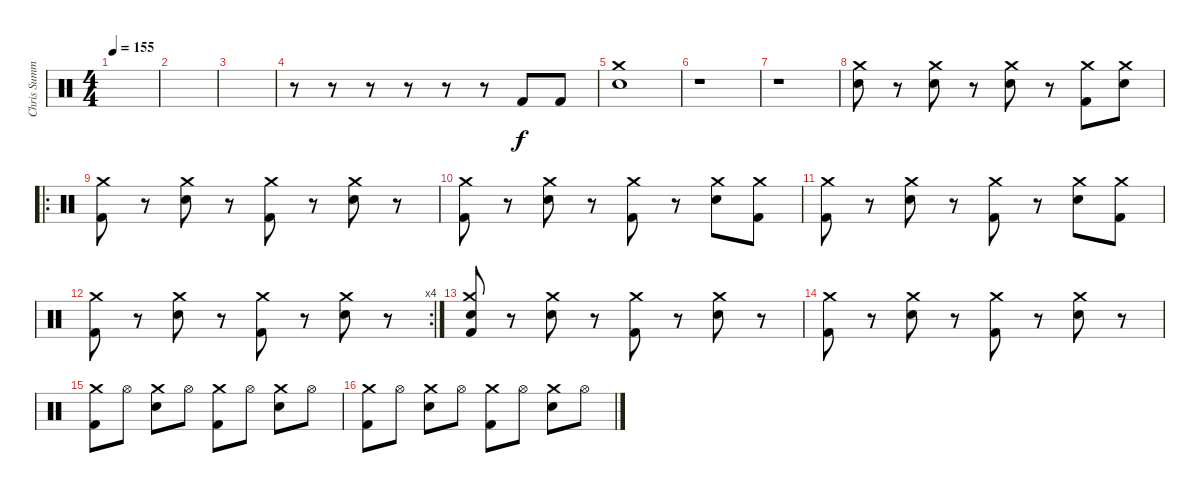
\track ("Chris Summers" "Chris Summ") {instrument percussion}
\staff {score}
\articulation defaults
\ts (4 4)
\tempo 155
\clef neutral
\ks c
|
|
|
r.8 r.8 r.8 r.8 r.8 r.8 "Kick (hit) 2".8 "Kick (hit) 2".8 |
("Crash medium (hit)" "Electric Snare (hit)").1 |
r.1 |
r.1 |
("Crash medium (hit)" "Electric Snare (hit)").8 r.8 ("Crash medium (hit)" "Electric Snare (hit)").8 r.8 ("Crash medium (hit)" "Electric Snare (hit)").8 r.8 ("Crash medium (hit)" "Kick (hit) 2").8 ("Crash medium (hit)" "Electric Snare (hit)").8 |
\ro
("Crash medium (hit)" "Kick (hit) 2").8 r.8 ("Crash medium (hit)" "Electric Snare (hit)").8 r.8 ("Crash medium (hit)" "Kick (hit) 2").8 r.8 ("Crash medium (hit)" "Electric Snare (hit)").8 r.8 |
("Crash medium (hit)" "Kick (hit) 2").8 r.8 ("Crash medium (hit)" "Electric Snare (hit)").8 r.8 ("Crash medium (hit)" "Kick (hit) 2").8 r.8 ("Crash medium (hit)" "Electric Snare (hit)").8 ("Crash medium (hit)" "Kick (hit) 2").8 |
("Crash medium (hit)" "Kick (hit) 2").8 r.8 ("Crash medium (hit)" "Electric Snare (hit)").8 r.8 ("Crash medium (hit)" "Kick (hit) 2").8 r.8 ("Crash medium (hit)" "Electric Snare (hit)").8 ("Crash medium (hit)" "Kick (hit) 2").8 |
\rc 4
("Crash medium (hit)" "Kick (hit) 2").8 r.8 ("Crash medium (hit)" "Electric Snare (hit)").8 r.8 ("Crash medium (hit)" "Kick (hit) 2").8 r.8 ("Crash medium (hit)" "Electric Snare (hit)").8 r.8 |
("Crash medium (hit)" "Electric Snare (hit)" "Kick (hit) 2").8 r.8 ("Crash medium (hit)" "Electric Snare (hit)").8 r.8 ("Crash medium (hit)" "Kick (hit) 2").8 r.8 ("Crash medium (hit)" "Electric Snare (hit)").8 r.8 |
("Crash medium (hit)" "Kick (hit) 2").8 r.8 ("Crash medium (hit)" "Electric Snare (hit)").8 r.8 ("Crash medium (hit)" "Kick (hit) 2").8 r.8 ("Crash medium (hit)" "Electric Snare (hit)").8 r.8 |
("Crash medium (hit)" "Kick (hit) 2").8 "Hi-Hat (open)".8 ("Crash medium (hit)" "Electric Snare (hit)").8 "Hi-Hat (open)".8 ("Crash medium (hit)" "Kick (hit) 2").8 "Hi-Hat (open)".8 ("Crash medium (hit)" "Electric Snare (hit)").8 "Hi-Hat (open)".8 |
("Crash medium (hit)" "Kick (hit) 2").8 "Hi-Hat (open)".8 ("Crash medium (hit)" "Electric Snare (hit)").8 "Hi-Hat (open)".8 ("Crash medium (hit)" "Kick (hit) 2").8 "Hi-Hat (open)".8 ("Crash medium (hit)" "Electric Snare (hit)").8 "Hi-Hat (open)".8
